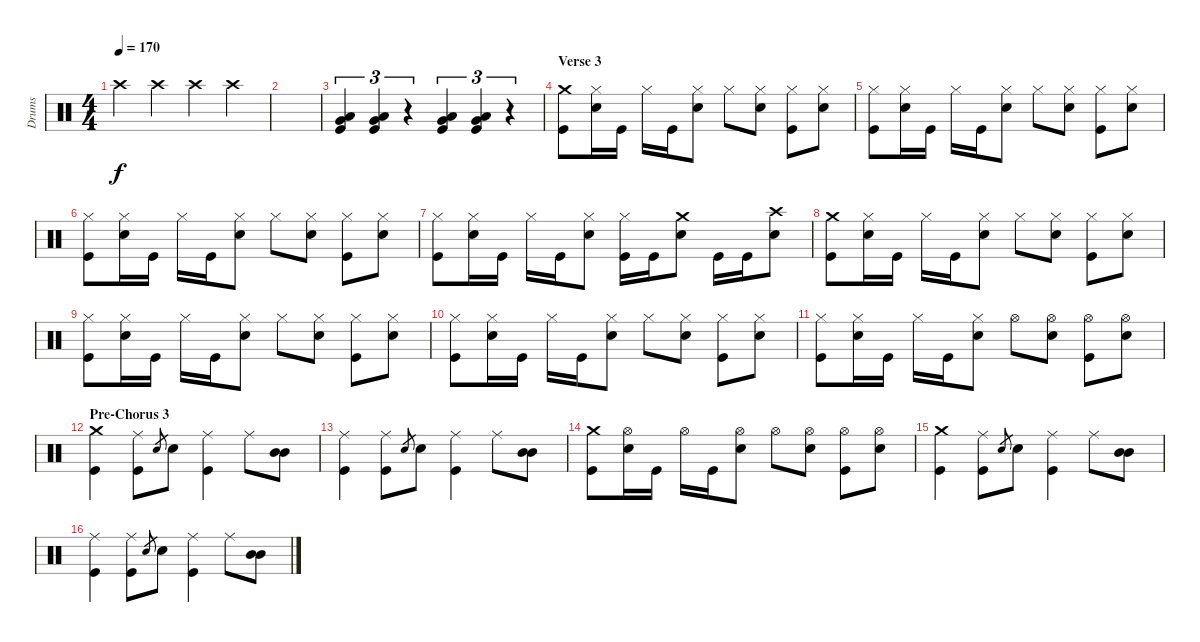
\track ("Drums" "Drums") {instrument percussion}
\staff {score}
\articulation defaults
\ts (4 4)
\tempo 170
\clef neutral
\ks c "Crash high (hit)".4{dy f} "Crash high (hit)".4 "Crash high (hit)".4 "Crash high (hit)".4
|
|
("Very Low Tom (hit)" "Low Floor Tom (hit)" "Kick (hit)").4{tu (3 2) volume 13} ("Very Low Tom (hit)" "Low Floor Tom (hit)" "Kick (hit)").4{tu (3 2)} r.4{tu (3 2)} ("Very Low Tom (hit)" "Low Floor Tom (hit)" "Kick (hit)").4{tu (3 2)} ("Very Low Tom (hit)" "Low Floor Tom (hit)" "Kick (hit)").4{tu (3 2)} r.4{tu (3 2)} |
\section ("" "Verse 3")
("Crash medium (hit)" "Kick (hit)").8 ("Hi-Hat (closed)" "Snare (hit) 2").16 "Kick (hit)".16 "Hi-Hat (closed)".16 "Kick (hit)".16 ("Hi-Hat (closed)" "Snare (hit) 2").8 "Hi-Hat (closed)".8 ("Hi-Hat (closed)" "Snare (hit) 2").8 ("Hi-Hat (closed)" "Kick (hit)").8 ("Hi-Hat (closed)" "Snare (hit) 2").8 |
("Hi-Hat (closed)" "Kick (hit)").8 ("Hi-Hat (closed)" "Snare (hit) 2").16 "Kick (hit)".16 "Hi-Hat (closed)".16 "Kick (hit)".16 ("Hi-Hat (closed)" "Snare (hit) 2").8 "Hi-Hat (closed)".8 ("Hi-Hat (closed)" "Snare (hit) 2").8 ("Hi-Hat (closed)" "Kick (hit)").8 ("Hi-Hat (closed)" "Snare (hit) 2").8 |
("Hi-Hat (closed)" "Kick (hit)").8 ("Hi-Hat (closed)" "Snare (hit) 2").16 "Kick (hit)".16 "Hi-Hat (closed)".16 "Kick (hit)".16 ("Hi-Hat (closed)" "Snare (hit) 2").8 "Hi-Hat (closed)".8 ("Hi-Hat (closed)" "Snare (hit) 2").8 ("Hi-Hat (closed)" "Kick (hit)").8 ("Hi-Hat (closed)" "Snare (hit) 2").8 |
("Hi-Hat (closed)" "Kick (hit)").8 ("Hi-Hat (closed)" "Snare (hit) 2").16 "Kick (hit)".16 "Hi-Hat (closed)".16 "Kick (hit)".16 ("Hi-Hat (closed)" "Snare (hit) 2").8 ("Hi-Hat (closed)" "Kick (hit)").16 "Kick (hit)".16 ("Crash medium (hit)" "Snare (hit) 2").8 "Kick (hit)".16 "Kick (hit)".16 ("Crash high (hit)" "Snare (hit) 2").8 |
("Crash medium (hit)" "Kick (hit)").8 ("Hi-Hat (closed)" "Snare (hit) 2").16 "Kick (hit)".16 "Hi-Hat (closed)".16 "Kick (hit)".16 ("Hi-Hat (closed)" "Snare (hit) 2").8 "Hi-Hat (closed)".8 ("Hi-Hat (closed)" "Snare (hit) 2").8 ("Hi-Hat (closed)" "Kick (hit)").8 ("Hi-Hat (closed)" "Snare (hit) 2").8 |
("Hi-Hat (closed)" "Kick (hit)").8 ("Hi-Hat (closed)" "Snare (hit) 2").16 "Kick (hit)".16 "Hi-Hat (closed)".16 "Kick (hit)".16 ("Hi-Hat (closed)" "Snare (hit) 2").8 "Hi-Hat (closed)".8 ("Hi-Hat (closed)" "Snare (hit) 2").8 ("Hi-Hat (closed)" "Kick (hit)").8 ("Hi-Hat (closed)" "Snare (hit) 2").8 |
("Hi-Hat (closed)" "Kick (hit)").8 ("Hi-Hat (closed)" "Snare (hit) 2").16 "Kick (hit)".16 "Hi-Hat (closed)".16 "Kick (hit)".16 ("Hi-Hat (closed)" "Snare (hit) 2").8 "Hi-Hat (closed)".8 ("Hi-Hat (closed)" "Snare (hit) 2").8 ("Hi-Hat (closed)" "Kick (hit)").8 ("Hi-Hat (closed)" "Snare (hit) 2").8 |
("Hi-Hat (closed)" "Kick (hit)").8 ("Hi-Hat (closed)" "Snare (hit) 2").16 "Kick (hit)".16 "Hi-Hat (closed)".16 "Kick (hit)".16 ("Hi-Hat (closed)" "Snare (hit) 2").8 "Hi-Hat (open)".8{volume 9} ("Hi-Hat (open)" "Snare (hit) 2").8{volume 10} ("Hi-Hat (open)" "Kick (hit)").8{volume 12} ("Hi-Hat (open)" "Snare (hit) 2").8{volume 13} |
\section ("" "Pre-Chorus 3")
("Crash medium (hit)" "Kick (hit)").4 ("Ride (middle)" "Kick (hit)").8 "Snare (hit) 2".8{gr} "Snare (hit) 2".8 ("Ride (middle)" "Kick (hit)").4 "Ride (middle)".8 ("Mid Tom (hit)" "Mid Tom (hit)").8 |
("Ride (middle)" "Kick (hit)").4 ("Ride (middle)" "Kick (hit)").8 "Snare (hit) 2".8{gr} "Snare (hit) 2".8 ("Ride (middle)" "Kick (hit)").4 "Ride (middle)".8 ("Mid Tom (hit)" "Mid Tom (hit)").8 |
("Crash medium (hit)" "Kick (hit)").8 ("Hi-Hat (open)" "Snare (hit) 2").16 "Kick (hit)".16 "Hi-Hat (open)".16 "Kick (hit)".16 ("Hi-Hat (open)" "Snare (hit) 2").8 "Hi-Hat (open)".8 ("Hi-Hat (open)" "Snare (hit) 2").8 ("Hi-Hat (open)" "Kick (hit)").8 ("Hi-Hat (open)" "Snare (hit) 2").8 |
("Crash medium (hit)" "Kick (hit)").4 ("Ride (middle)" "Kick (hit)").8 "Snare (hit) 2".8{gr} "Snare (hit) 2".8 ("Ride (middle)" "Kick (hit)").4 "Ride (middle)".8 ("Mid Tom (hit)" "Mid Tom (hit)").8 |
("Ride (middle)" "Kick (hit)").4 ("Ride (middle)" "Kick (hit)").8 "Snare (hit) 2".8{gr} "Snare (hit) 2".8 ("Ride (middle)" "Kick (hit)").4 "Ride (middle)".8 ("Mid Tom (hit)" "Mid Tom (hit)").8
